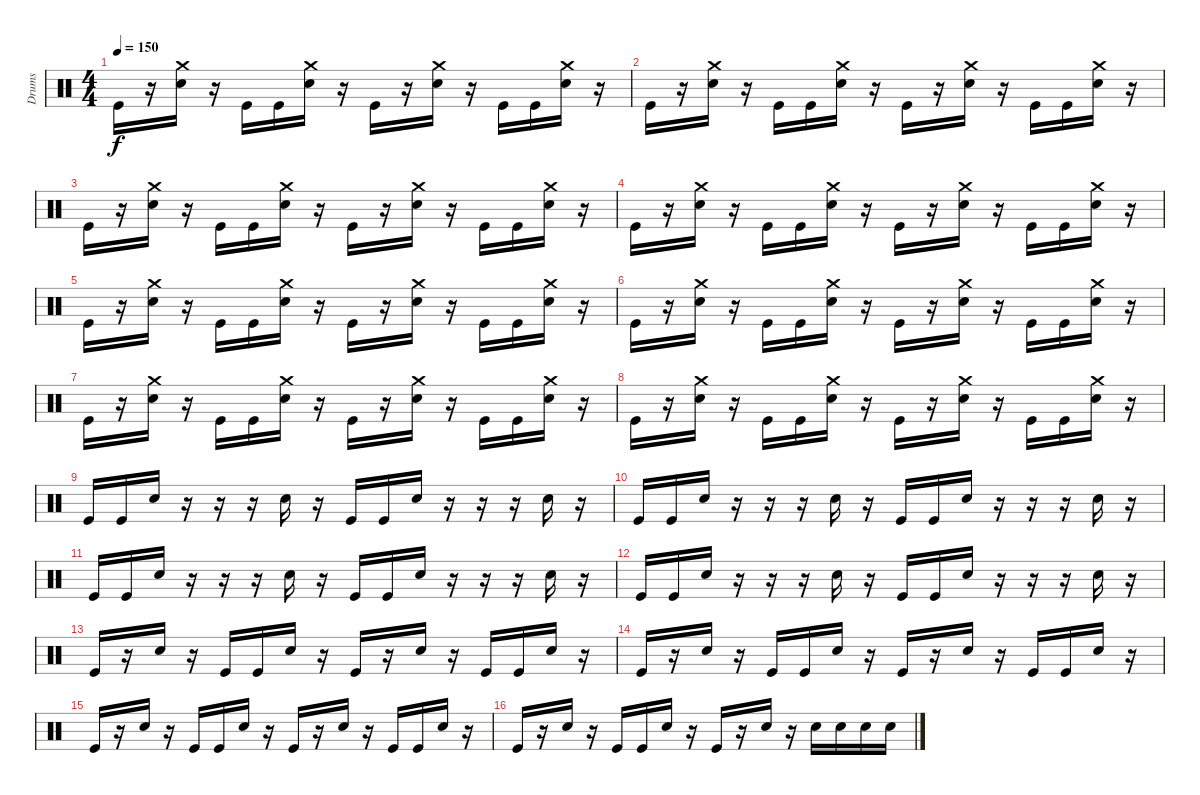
\track ("Drums" "Drums") {instrument percussion}
\staff {score}
\articulation defaults
\ts (4 4)
\tempo 150
\clef neutral
\ks c "Kick (hit)".16{dy f}
r.16 ("Crash medium (hit)" "Snare (hit) 2").16 r.16 "Kick (hit)".16 "Kick (hit)".16 ("Crash medium (hit)" "Snare (hit) 2").16 r.16 "Kick (hit)".16 r.16 ("Crash medium (hit)" "Snare (hit) 2").16 r.16 "Kick (hit)".16 "Kick (hit)".16 ("Crash medium (hit)" "Snare (hit) 2").16 r.16 |
"Kick (hit)".16 r.16 ("Crash medium (hit)" "Snare (hit) 2").16 r.16 "Kick (hit)".16 "Kick (hit)".16 ("Crash medium (hit)" "Snare (hit) 2").16 r.16 "Kick (hit)".16 r.16 ("Crash medium (hit)" "Snare (hit) 2").16 r.16 "Kick (hit)".16 "Kick (hit)".16 ("Crash medium (hit)" "Snare (hit) 2").16 r.16 |
"Kick (hit)".16 r.16 ("Crash medium (hit)" "Snare (hit) 2").16 r.16 "Kick (hit)".16 "Kick (hit)".16 ("Crash medium (hit)" "Snare (hit) 2").16 r.16 "Kick (hit)".16 r.16 ("Crash medium (hit)" "Snare (hit) 2").16 r.16 "Kick (hit)".16 "Kick (hit)".16 ("Crash medium (hit)" "Snare (hit) 2").16 r.16 |
"Kick (hit)".16 r.16 ("Crash medium (hit)" "Snare (hit) 2").16 r.16 "Kick (hit)".16 "Kick (hit)".16 ("Crash medium (hit)" "Snare (hit) 2").16 r.16 "Kick (hit)".16 r.16 ("Crash medium (hit)" "Snare (hit) 2").16 r.16 "Kick (hit)".16 "Kick (hit)".16 ("Crash medium (hit)" "Snare (hit) 2").16 r.16 |
"Kick (hit)".16 r.16 ("Crash medium (hit)" "Snare (hit) 2").16 r.16 "Kick (hit)".16 "Kick (hit)".16 ("Crash medium (hit)" "Snare (hit) 2").16 r.16 "Kick (hit)".16 r.16 ("Crash medium (hit)" "Snare (hit) 2").16 r.16 "Kick (hit)".16 "Kick (hit)".16 ("Crash medium (hit)" "Snare (hit) 2").16 r.16 |
"Kick (hit)".16 r.16 ("Crash medium (hit)" "Snare (hit) 2").16 r.16 "Kick (hit)".16 "Kick (hit)".16 ("Crash medium (hit)" "Snare (hit) 2").16 r.16 "Kick (hit)".16 r.16 ("Crash medium (hit)" "Snare (hit) 2").16 r.16 "Kick (hit)".16 "Kick (hit)".16 ("Crash medium (hit)" "Snare (hit) 2").16 r.16 |
"Kick (hit)".16 r.16 ("Crash medium (hit)" "Snare (hit) 2").16 r.16 "Kick (hit)".16 "Kick (hit)".16 ("Crash medium (hit)" "Snare (hit) 2").16 r.16 "Kick (hit)".16 r.16 ("Crash medium (hit)" "Snare (hit) 2").16 r.16 "Kick (hit)".16 "Kick (hit)".16 ("Crash medium (hit)" "Snare (hit) 2").16 r.16 |
"Kick (hit)".16 r.16 ("Crash medium (hit)" "Snare (hit) 2").16 r.16 "Kick (hit)".16 "Kick (hit)".16 ("Crash medium (hit)" "Snare (hit) 2").16 r.16 "Kick (hit)".16 r.16 ("Crash medium (hit)" "Snare (hit) 2").16 r.16 "Kick (hit)".16 "Kick (hit)".16 ("Crash medium (hit)" "Snare (hit) 2").16 r.16 |
"Kick (hit)".16 "Kick (hit)".16 "Snare (hit) 2".16 r.16 r.16 r.16 "Snare (hit) 2".16 r.16 "Kick (hit)".16 "Kick (hit)".16 "Snare (hit) 2".16 r.16 r.16 r.16 "Snare (hit) 2".16 r.16 |
"Kick (hit)".16 "Kick (hit)".16 "Snare (hit) 2".16 r.16 r.16 r.16 "Snare (hit) 2".16 r.16 "Kick (hit)".16 "Kick (hit)".16 "Snare (hit) 2".16 r.16 r.16 r.16 "Snare (hit) 2".16 r.16 |
"Kick (hit)".16 "Kick (hit)".16 "Snare (hit) 2".16 r.16 r.16 r.16 "Snare (hit) 2".16 r.16 "Kick (hit)".16 "Kick (hit)".16 "Snare (hit) 2".16 r.16 r.16 r.16 "Snare (hit) 2".16 r.16 |
"Kick (hit)".16 "Kick (hit)".16 "Snare (hit) 2".16 r.16 r.16 r.16 "Snare (hit) 2".16 r.16 "Kick (hit)".16 "Kick (hit)".16 "Snare (hit) 2".16 r.16 r.16 r.16 "Snare (hit) 2".16 r.16 |
"Kick (hit)".16 r.16 "Snare (hit) 2".16 r.16 "Kick (hit)".16 "Kick (hit)".16 "Snare (hit) 2".16 r.16 "Kick (hit)".16 r.16 "Snare (hit) 2".16 r.16 "Kick (hit)".16 "Kick (hit)".16 "Snare (hit) 2".16 r.16 |
"Kick (hit)".16 r.16 "Snare (hit) 2".16 r.16 "Kick (hit)".16 "Kick (hit)".16 "Snare (hit) 2".16 r.16 "Kick (hit)".16 r.16 "Snare (hit) 2".16 r.16 "Kick (hit)".16 "Kick (hit)".16 "Snare (hit) 2".16 r.16 |
"Kick (hit)".16 r.16 "Snare (hit) 2".16 r.16 "Kick (hit)".16 "Kick (hit)".16 "Snare (hit) 2".16 r.16 "Kick (hit)".16 r.16 "Snare (hit) 2".16 r.16 "Kick (hit)".16 "Kick (hit)".16 "Snare (hit) 2".16 r.16 |
"Kick (hit)".16 r.16 "Snare (hit) 2".16 r.16 "Kick (hit)".16 "Kick (hit)".16 "Snare (hit) 2".16 r.16 "Kick (hit)".16 r.16 "Snare (hit) 2".16 r.16 "Snare (hit) 2".16 "Snare (hit) 2".16 "Snare (hit) 2".16 "Snare (hit) 2".16
